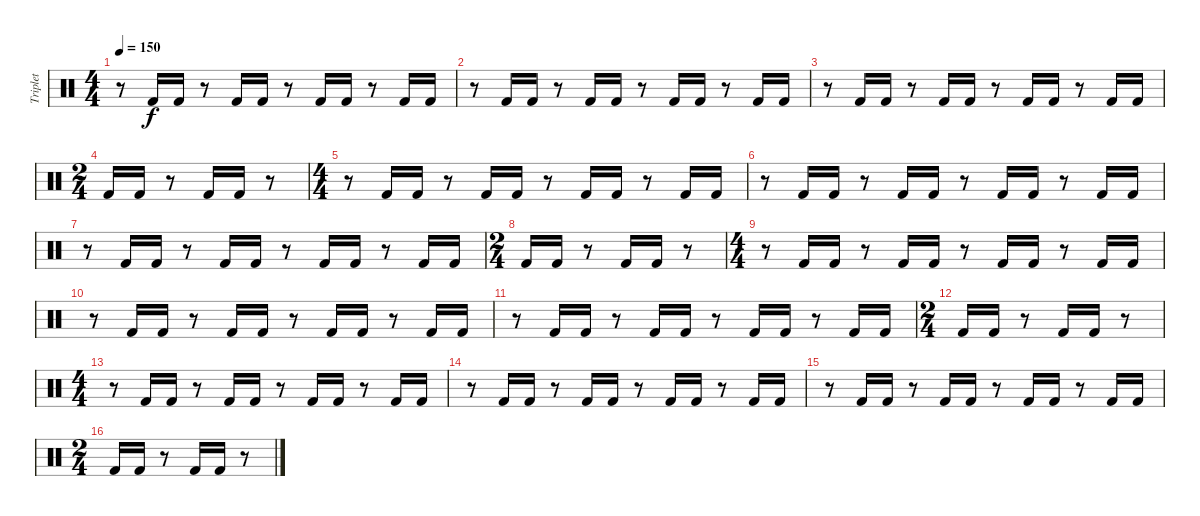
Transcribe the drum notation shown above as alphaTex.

\track ("Triplet" "Triplet") {instrument percussion}
\staff {score}
\articulation defaults
\ts (4 4)
\tempo 150
\clef neutral
\ks c
r.8{dy f} "Kick (hit) 2".16 "Kick (hit) 2".16 r.8 "Kick (hit) 2".16 "Kick (hit) 2".16 r.8 "Kick (hit) 2".16 "Kick (hit) 2".16 r.8 "Kick (hit) 2".16 "Kick (hit) 2".16 |
r.8 "Kick (hit) 2".16 "Kick (hit) 2".16 r.8 "Kick (hit) 2".16 "Kick (hit) 2".16 r.8 "Kick (hit) 2".16 "Kick (hit) 2".16 r.8 "Kick (hit) 2".16 "Kick (hit) 2".16 |
r.8 "Kick (hit) 2".16 "Kick (hit) 2".16 r.8 "Kick (hit) 2".16 "Kick (hit) 2".16 r.8 "Kick (hit) 2".16 "Kick (hit) 2".16 r.8 "Kick (hit) 2".16 "Kick (hit) 2".16 |
\ts (2 4)
"Kick (hit) 2".16 "Kick (hit) 2".16 r.8 "Kick (hit) 2".16 "Kick (hit) 2".16 r.8 |
\ts (4 4)
r.8 "Kick (hit) 2".16 "Kick (hit) 2".16 r.8 "Kick (hit) 2".16 "Kick (hit) 2".16 r.8 "Kick (hit) 2".16 "Kick (hit) 2".16 r.8 "Kick (hit) 2".16 "Kick (hit) 2".16 |
r.8 "Kick (hit) 2".16 "Kick (hit) 2".16 r.8 "Kick (hit) 2".16 "Kick (hit) 2".16 r.8 "Kick (hit) 2".16 "Kick (hit) 2".16 r.8 "Kick (hit) 2".16 "Kick (hit) 2".16 |
r.8 "Kick (hit) 2".16 "Kick (hit) 2".16 r.8 "Kick (hit) 2".16 "Kick (hit) 2".16 r.8 "Kick (hit) 2".16 "Kick (hit) 2".16 r.8 "Kick (hit) 2".16 "Kick (hit) 2".16 |
\ts (2 4)
"Kick (hit) 2".16 "Kick (hit) 2".16 r.8 "Kick (hit) 2".16 "Kick (hit) 2".16 r.8 |
\ts (4 4)
r.8 "Kick (hit) 2".16 "Kick (hit) 2".16 r.8 "Kick (hit) 2".16 "Kick (hit) 2".16 r.8 "Kick (hit) 2".16 "Kick (hit) 2".16 r.8 "Kick (hit) 2".16 "Kick (hit) 2".16 |
r.8 "Kick (hit) 2".16 "Kick (hit) 2".16 r.8 "Kick (hit) 2".16 "Kick (hit) 2".16 r.8 "Kick (hit) 2".16 "Kick (hit) 2".16 r.8 "Kick (hit) 2".16 "Kick (hit) 2".16 |
r.8 "Kick (hit) 2".16 "Kick (hit) 2".16 r.8 "Kick (hit) 2".16 "Kick (hit) 2".16 r.8 "Kick (hit) 2".16 "Kick (hit) 2".16 r.8 "Kick (hit) 2".16 "Kick (hit) 2".16 |
\ts (2 4)
"Kick (hit) 2".16 "Kick (hit) 2".16 r.8 "Kick (hit) 2".16 "Kick (hit) 2".16 r.8 |
\ts (4 4)
r.8 "Kick (hit) 2".16 "Kick (hit) 2".16 r.8 "Kick (hit) 2".16 "Kick (hit) 2".16 r.8 "Kick (hit) 2".16 "Kick (hit) 2".16 r.8 "Kick (hit) 2".16 "Kick (hit) 2".16 |
r.8 "Kick (hit) 2".16 "Kick (hit) 2".16 r.8 "Kick (hit) 2".16 "Kick (hit) 2".16 r.8 "Kick (hit) 2".16 "Kick (hit) 2".16 r.8 "Kick (hit) 2".16 "Kick (hit) 2".16 |
r.8 "Kick (hit) 2".16 "Kick (hit) 2".16 r.8 "Kick (hit) 2".16 "Kick (hit) 2".16 r.8 "Kick (hit) 2".16 "Kick (hit) 2".16 r.8 "Kick (hit) 2".16 "Kick (hit) 2".16 |
\ts (2 4)
"Kick (hit) 2".16 "Kick (hit) 2".16 r.8 "Kick (hit) 2".16 "Kick (hit) 2".16 r.8
